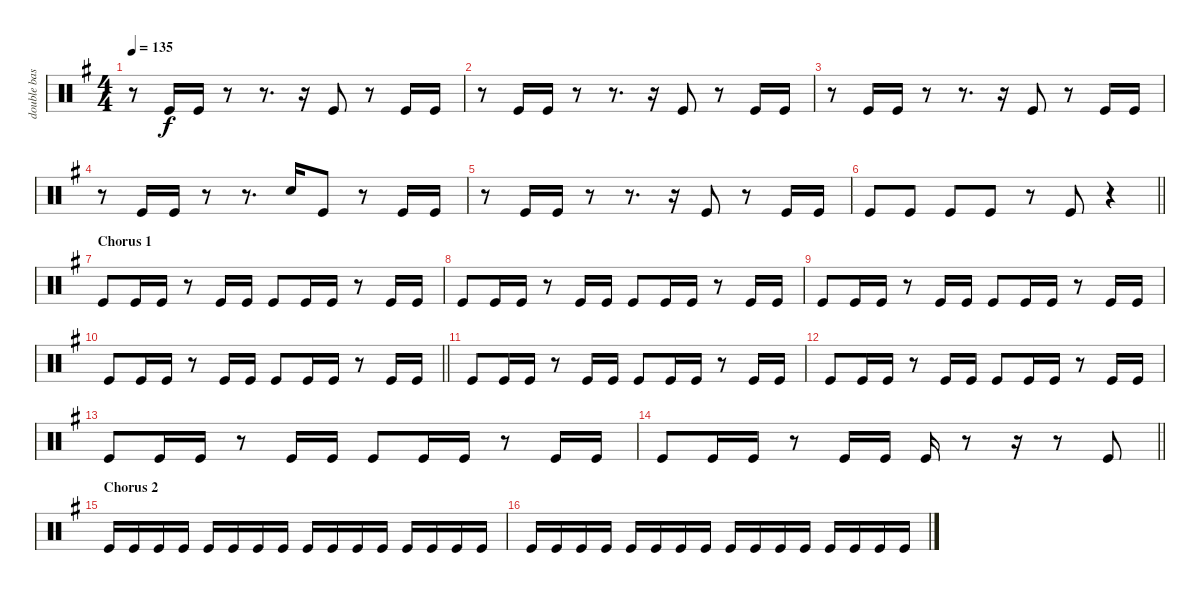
\track ("double bass" "double bas") {instrument percussion}
\staff {score}
\articulation defaults
\ts (4 4)
\tempo 135
\clef neutral
\ks eminor
r.8{dy f} "Kick (hit)".16 "Kick (hit)".16 r.8 r.8{d} r.16 "Kick (hit)".8 r.8 "Kick (hit)".16 "Kick (hit)".16 |
r.8 "Kick (hit)".16 "Kick (hit)".16 r.8 r.8{d} r.16 "Kick (hit)".8 r.8 "Kick (hit)".16 "Kick (hit)".16 |
r.8 "Kick (hit)".16 "Kick (hit)".16 r.8 r.8{d} r.16 "Kick (hit)".8 r.8 "Kick (hit)".16 "Kick (hit)".16 |
r.8 "Kick (hit)".16 "Kick (hit)".16 r.8 r.8{d} "Snare (hit) 2".16 "Kick (hit)".8 r.8 "Kick (hit)".16 "Kick (hit)".16 |
r.8 "Kick (hit)".16 "Kick (hit)".16 r.8 r.8{d} r.16 "Kick (hit)".8 r.8 "Kick (hit)".16 "Kick (hit)".16 |
\barLineRight lightlight "Kick (hit)".8 "Kick (hit)".8 "Kick (hit)".8 "Kick (hit)".8
r.8 "Kick (hit)".8 r.4 |
\section ("" "Chorus 1")
"Kick (hit)".8 "Kick (hit)".16 "Kick (hit)".16 r.8 "Kick (hit)".16 "Kick (hit)".16 "Kick (hit)".8 "Kick (hit)".16 "Kick (hit)".16 r.8 "Kick (hit)".16 "Kick (hit)".16 |
"Kick (hit)".8 "Kick (hit)".16 "Kick (hit)".16 r.8 "Kick (hit)".16 "Kick (hit)".16 "Kick (hit)".8 "Kick (hit)".16 "Kick (hit)".16 r.8 "Kick (hit)".16 "Kick (hit)".16 |
"Kick (hit)".8 "Kick (hit)".16 "Kick (hit)".16 r.8 "Kick (hit)".16 "Kick (hit)".16 "Kick (hit)".8 "Kick (hit)".16 "Kick (hit)".16 r.8 "Kick (hit)".16 "Kick (hit)".16 |
\barLineRight lightlight "Kick (hit)".8 "Kick (hit)".16 "Kick (hit)".16
r.8 "Kick (hit)".16 "Kick (hit)".16 "Kick (hit)".8 "Kick (hit)".16 "Kick (hit)".16 r.8 "Kick (hit)".16 "Kick (hit)".16 |
"Kick (hit)".8 "Kick (hit)".16 "Kick (hit)".16 r.8 "Kick (hit)".16 "Kick (hit)".16 "Kick (hit)".8 "Kick (hit)".16 "Kick (hit)".16 r.8 "Kick (hit)".16 "Kick (hit)".16 |
"Kick (hit)".8 "Kick (hit)".16 "Kick (hit)".16 r.8 "Kick (hit)".16 "Kick (hit)".16 "Kick (hit)".8 "Kick (hit)".16 "Kick (hit)".16 r.8 "Kick (hit)".16 "Kick (hit)".16 |
"Kick (hit)".8 "Kick (hit)".16 "Kick (hit)".16 r.8 "Kick (hit)".16 "Kick (hit)".16 "Kick (hit)".8 "Kick (hit)".16 "Kick (hit)".16 r.8 "Kick (hit)".16 "Kick (hit)".16 |
\barLineRight lightlight "Kick (hit)".8 "Kick (hit)".16 "Kick (hit)".16
r.8 "Kick (hit)".16 "Kick (hit)".16 "Kick (hit)".16 r.8 r.16 r.8 "Kick (hit)".8 |
\section ("" "Chorus 2")
"Kick (hit)".16 "Kick (hit)".16 "Kick (hit)".16 "Kick (hit)".16 "Kick (hit)".16 "Kick (hit)".16 "Kick (hit)".16 "Kick (hit)".16 "Kick (hit)".16 "Kick (hit)".16 "Kick (hit)".16 "Kick (hit)".16 "Kick (hit)".16 "Kick (hit)".16 "Kick (hit)".16 "Kick (hit)".16 |
"Kick (hit)".16 "Kick (hit)".16 "Kick (hit)".16 "Kick (hit)".16 "Kick (hit)".16 "Kick (hit)".16 "Kick (hit)".16 "Kick (hit)".16 "Kick (hit)".16 "Kick (hit)".16 "Kick (hit)".16 "Kick (hit)".16 "Kick (hit)".16 "Kick (hit)".16 "Kick (hit)".16 "Kick (hit)".16
